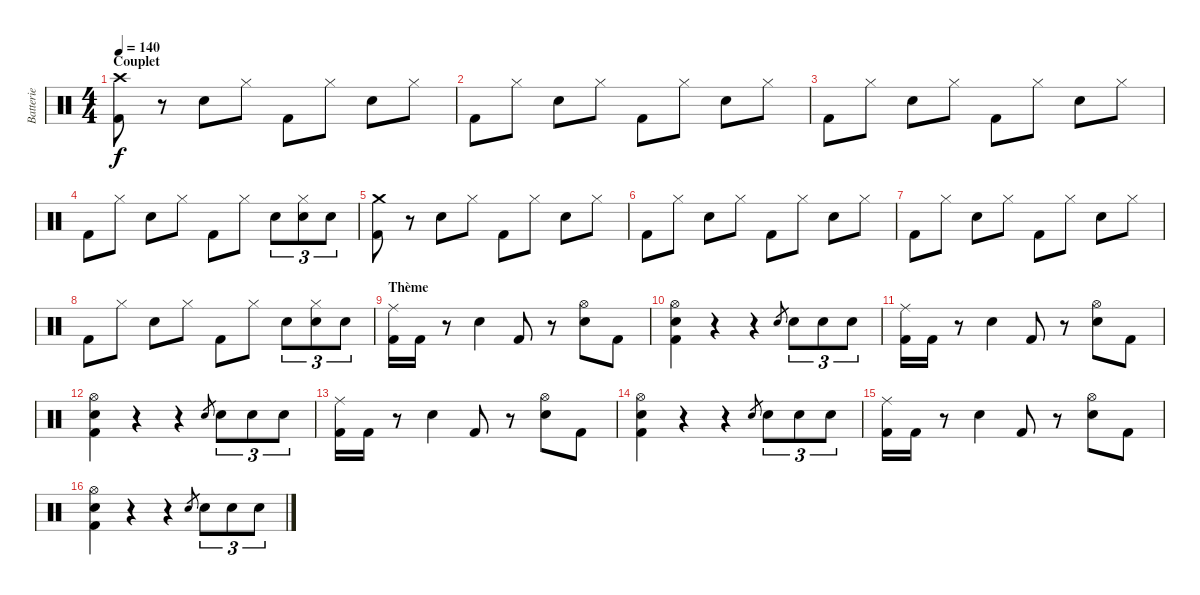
\track ("Batterie" "Batterie") {instrument percussion}
\staff {score}
\articulation defaults
\ts (4 4)
\section ("" "Couplet")
\tempo 140
\clef neutral
\ks c
("Crash high (hit)" "Kick (hit) 2").8{dy f} r.8 "Electric Snare (hit)".8 "Hi-Hat (closed)".8 "Kick (hit) 2".8 "Hi-Hat (closed)".8 "Electric Snare (hit)".8 "Hi-Hat (closed)".8 |
"Kick (hit) 2".8 "Hi-Hat (closed)".8 "Electric Snare (hit)".8 "Hi-Hat (closed)".8 "Kick (hit) 2".8 "Hi-Hat (closed)".8 "Electric Snare (hit)".8 "Hi-Hat (closed)".8 |
"Kick (hit) 2".8 "Hi-Hat (closed)".8 "Electric Snare (hit)".8 "Hi-Hat (closed)".8 "Kick (hit) 2".8 "Hi-Hat (closed)".8 "Electric Snare (hit)".8 "Hi-Hat (closed)".8 |
"Kick (hit) 2".8 "Hi-Hat (closed)".8 "Electric Snare (hit)".8 "Hi-Hat (closed)".8 "Kick (hit) 2".8 "Hi-Hat (closed)".8 "Electric Snare (hit)".8{tu (3 2)} ("Hi-Hat (closed)" "Electric Snare (hit)").8{tu (3 2)} "Electric Snare (hit)".8{tu (3 2)} |
("Crash medium (hit)" "Kick (hit) 2").8 r.8 "Electric Snare (hit)".8 "Hi-Hat (closed)".8 "Kick (hit) 2".8 "Hi-Hat (closed)".8 "Electric Snare (hit)".8 "Hi-Hat (closed)".8 |
"Kick (hit) 2".8 "Hi-Hat (closed)".8 "Electric Snare (hit)".8 "Hi-Hat (closed)".8 "Kick (hit) 2".8 "Hi-Hat (closed)".8 "Electric Snare (hit)".8 "Hi-Hat (closed)".8 |
"Kick (hit) 2".8 "Hi-Hat (closed)".8 "Electric Snare (hit)".8 "Hi-Hat (closed)".8 "Kick (hit) 2".8 "Hi-Hat (closed)".8 "Electric Snare (hit)".8 "Hi-Hat (closed)".8 |
"Kick (hit) 2".8 "Hi-Hat (closed)".8 "Electric Snare (hit)".8 "Hi-Hat (closed)".8 "Kick (hit) 2".8 "Hi-Hat (closed)".8 "Electric Snare (hit)".8{tu (3 2)} ("Hi-Hat (closed)" "Electric Snare (hit)").8{tu (3 2)} "Electric Snare (hit)".8{tu (3 2)} |
\section ("" "Thème")
("Ride (middle)" "Kick (hit) 2").16 "Kick (hit) 2".16 r.8 "Electric Snare (hit)".4 "Kick (hit) 2".8 r.8 ("Hi-Hat (open)" "Electric Snare (hit)").8 "Kick (hit) 2".8 |
("Hi-Hat (open)" "Electric Snare (hit)" "Kick (hit) 2").4 r.4 r.4 "Electric Snare (hit)".8{gr} "Electric Snare (hit)".8{tu (3 2)} "Electric Snare (hit)".8{tu (3 2)} "Electric Snare (hit)".8{tu (3 2)} |
("Ride (middle)" "Kick (hit) 2").16 "Kick (hit) 2".16 r.8 "Electric Snare (hit)".4 "Kick (hit) 2".8 r.8 ("Hi-Hat (open)" "Electric Snare (hit)").8 "Kick (hit) 2".8 |
("Hi-Hat (open)" "Electric Snare (hit)" "Kick (hit) 2").4 r.4 r.4 "Electric Snare (hit)".8{gr} "Electric Snare (hit)".8{tu (3 2)} "Electric Snare (hit)".8{tu (3 2)} "Electric Snare (hit)".8{tu (3 2)} |
("Ride (middle)" "Kick (hit) 2").16 "Kick (hit) 2".16 r.8 "Electric Snare (hit)".4 "Kick (hit) 2".8 r.8 ("Hi-Hat (open)" "Electric Snare (hit)").8 "Kick (hit) 2".8 |
("Hi-Hat (open)" "Electric Snare (hit)" "Kick (hit) 2").4 r.4 r.4 "Electric Snare (hit)".8{gr} "Electric Snare (hit)".8{tu (3 2)} "Electric Snare (hit)".8{tu (3 2)} "Electric Snare (hit)".8{tu (3 2)} |
("Ride (middle)" "Kick (hit) 2").16 "Kick (hit) 2".16 r.8 "Electric Snare (hit)".4 "Kick (hit) 2".8 r.8 ("Hi-Hat (open)" "Electric Snare (hit)").8 "Kick (hit) 2".8 |
("Hi-Hat (open)" "Electric Snare (hit)" "Kick (hit) 2").4 r.4 r.4 "Electric Snare (hit)".8{gr} "Electric Snare (hit)".8{tu (3 2)} "Electric Snare (hit)".8{tu (3 2)} "Electric Snare (hit)".8{tu (3 2)}
